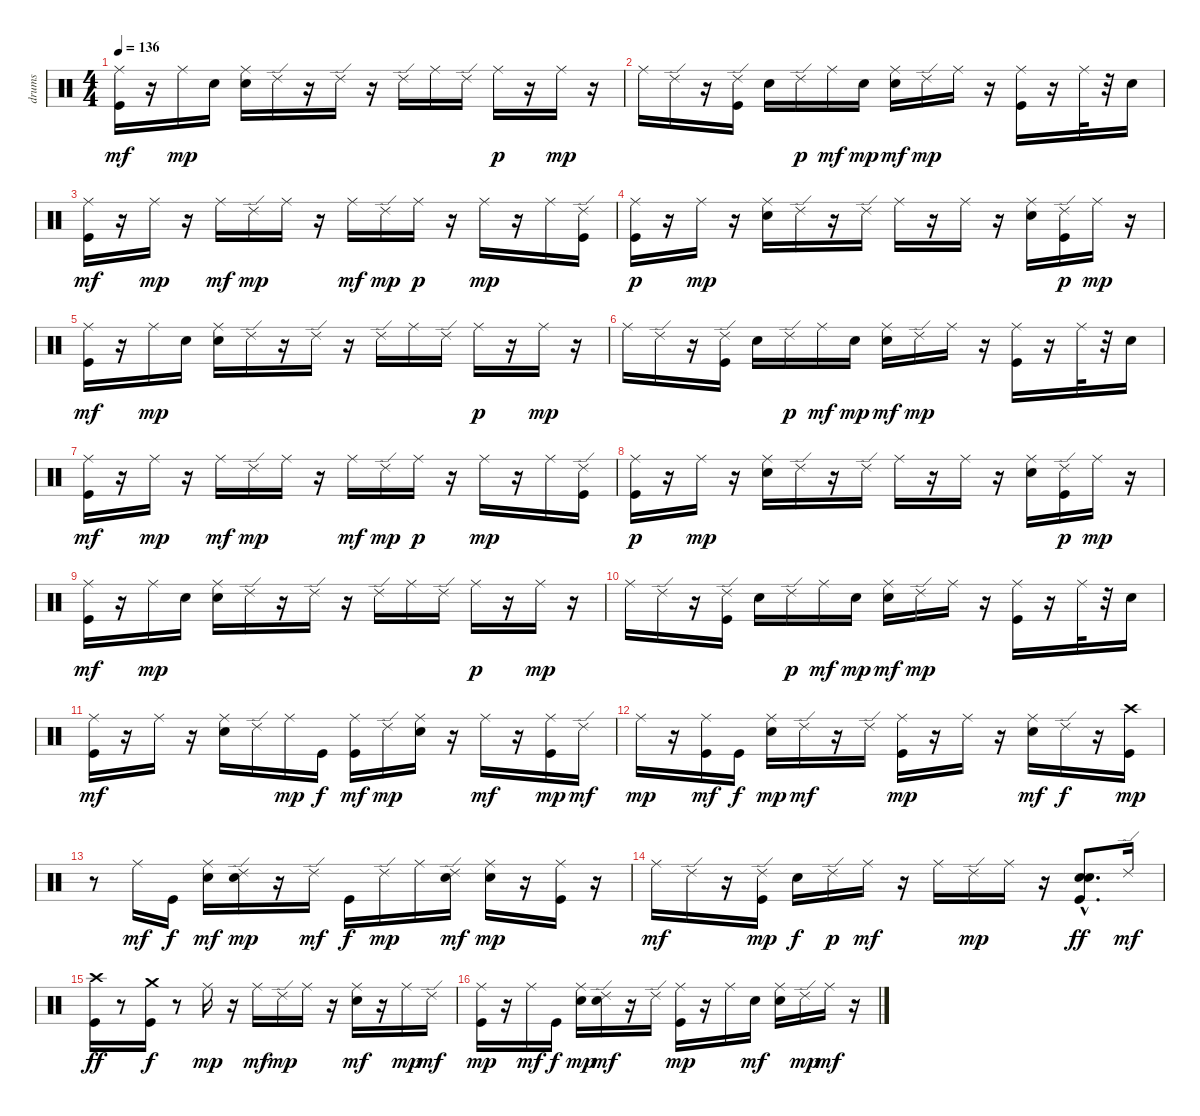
\track ("drums   " "drums   ") {instrument percussion}
\staff {score}
\articulation defaults
\ts (4 4)
\tempo 136
\clef neutral
\ks c
("Kick (hit)" "Ride (middle)").16{dy mf} r.16 "Ride (middle)".16{dy mp} "Electric Snare (hit)".16 ("Electric Snare (hit)" "Ride (middle)").16 "Ride (edge) 2".16 r.16 "Ride (edge) 2".16 r.16 "Ride (edge) 2".16 "Ride (middle)".16 "Ride (edge) 2".16 "Ride (middle)".16{dy p} r.16 "Ride (middle)".16{dy mp} r.16 |
"Ride (middle)".16 "Ride (edge) 2".16 r.16 ("Kick (hit)" "Ride (edge) 2").16 "Electric Snare (hit)".16 "Ride (edge) 2".16{dy p} "Ride (middle)".16{dy mf} "Electric Snare (hit)".16{dy mp} ("Electric Snare (hit)" "Ride (middle)").16{dy mf} "Ride (edge) 2".16{dy mp} "Ride (middle)".16 r.16 ("Kick (hit)" "Ride (middle)").16 r.16 "Ride (middle)".32 r.32 "Electric Snare (hit)".16 |
("Kick (hit)" "Ride (middle)").16{dy mf} r.16 "Ride (middle)".16{dy mp} r.16 "Ride (middle)".16{dy mf} "Ride (edge) 2".16{dy mp} "Ride (middle)".16 r.16 "Ride (middle)".16{dy mf} "Ride (edge) 2".16{dy mp} "Ride (middle)".16{dy p} r.16 "Ride (middle)".16{dy mp} r.16 "Ride (middle)".16 ("Kick (hit)" "Ride (edge) 2").16 |
("Kick (hit)" "Ride (middle)").16{dy p} r.16 "Ride (middle)".16{dy mp} r.16 ("Electric Snare (hit)" "Ride (middle)").16 "Ride (edge) 2".16 r.16 "Ride (edge) 2".16 "Ride (middle)".16 r.16 "Ride (middle)".16 r.16 ("Electric Snare (hit)" "Ride (middle)").16 ("Kick (hit)" "Ride (edge) 2").16{dy p} "Ride (middle)".16{dy mp} r.16 |
("Kick (hit)" "Ride (middle)").16{dy mf} r.16 "Ride (middle)".16{dy mp} "Electric Snare (hit)".16 ("Electric Snare (hit)" "Ride (middle)").16 "Ride (edge) 2".16 r.16 "Ride (edge) 2".16 r.16 "Ride (edge) 2".16 "Ride (middle)".16 "Ride (edge) 2".16 "Ride (middle)".16{dy p} r.16 "Ride (middle)".16{dy mp} r.16 |
"Ride (middle)".16 "Ride (edge) 2".16 r.16 ("Kick (hit)" "Ride (edge) 2").16 "Electric Snare (hit)".16 "Ride (edge) 2".16{dy p} "Ride (middle)".16{dy mf} "Electric Snare (hit)".16{dy mp} ("Electric Snare (hit)" "Ride (middle)").16{dy mf} "Ride (edge) 2".16{dy mp} "Ride (middle)".16 r.16 ("Kick (hit)" "Ride (middle)").16 r.16 "Ride (middle)".32 r.32 "Electric Snare (hit)".16 |
("Kick (hit)" "Ride (middle)").16{dy mf} r.16 "Ride (middle)".16{dy mp} r.16 "Ride (middle)".16{dy mf} "Ride (edge) 2".16{dy mp} "Ride (middle)".16 r.16 "Ride (middle)".16{dy mf} "Ride (edge) 2".16{dy mp} "Ride (middle)".16{dy p} r.16 "Ride (middle)".16{dy mp} r.16 "Ride (middle)".16 ("Kick (hit)" "Ride (edge) 2").16 |
("Kick (hit)" "Ride (middle)").16{dy p} r.16 "Ride (middle)".16{dy mp} r.16 ("Electric Snare (hit)" "Ride (middle)").16 "Ride (edge) 2".16 r.16 "Ride (edge) 2".16 "Ride (middle)".16 r.16 "Ride (middle)".16 r.16 ("Electric Snare (hit)" "Ride (middle)").16 ("Kick (hit)" "Ride (edge) 2").16{dy p} "Ride (middle)".16{dy mp} r.16 |
("Kick (hit)" "Ride (middle)").16{dy mf} r.16 "Ride (middle)".16{dy mp} "Electric Snare (hit)".16 ("Electric Snare (hit)" "Ride (middle)").16 "Ride (edge) 2".16 r.16 "Ride (edge) 2".16 r.16 "Ride (edge) 2".16 "Ride (middle)".16 "Ride (edge) 2".16 "Ride (middle)".16{dy p} r.16 "Ride (middle)".16{dy mp} r.16 |
"Ride (middle)".16 "Ride (edge) 2".16 r.16 ("Kick (hit)" "Ride (edge) 2").16 "Electric Snare (hit)".16 "Ride (edge) 2".16{dy p} "Ride (middle)".16{dy mf} "Electric Snare (hit)".16{dy mp} ("Electric Snare (hit)" "Ride (middle)").16{dy mf} "Ride (edge) 2".16{dy mp} "Ride (middle)".16 r.16 ("Kick (hit)" "Ride (middle)").16 r.16 "Ride (middle)".32 r.32 "Electric Snare (hit)".16 |
("Kick (hit)" "Ride (middle)").16{dy mf} r.16 "Ride (middle)".16 r.16 ("Electric Snare (hit)" "Ride (middle)").16 "Ride (edge) 2".16 "Ride (middle)".16{dy mp} "Kick (hit)".16{dy f} ("Kick (hit)" "Ride (middle)").16{dy mf} "Ride (edge) 2".16{dy mp} ("Electric Snare (hit)" "Ride (middle)").16 r.16 "Ride (middle)".16{dy mf} r.16 ("Kick (hit)" "Ride (middle)").16{dy mp} "Ride (edge) 2".16{dy mf} |
"Ride (middle)".16{dy mp} r.16 ("Kick (hit)" "Ride (middle)").16{dy mf} "Kick (hit)".16{dy f} ("Electric Snare (hit)" "Ride (middle)").16{dy mp} "Ride (edge) 2".16{dy mf} r.16 "Ride (edge) 2".16 ("Kick (hit)" "Ride (middle)").16{dy mp} r.16 "Ride (middle)".16 r.16 ("Electric Snare (hit)" "Ride (middle)").16{dy mf} "Ride (edge) 2".16{dy f} r.16 ("Crash high (hit)" "Kick (hit)").16{dy mp} |
r.8 "Ride (middle)".16{dy mf} "Kick (hit)".16{dy f} ("Electric Snare (hit)" "Ride (middle)").16{dy mf} ("Electric Snare (hit)" "Ride (edge) 2").16{dy mp} r.16 "Ride (edge) 2".16{dy mf} "Kick (hit)".16{dy f} "Ride (edge) 2".16{dy mp} "Ride (middle)".16 ("Electric Snare (hit)" "Ride (edge) 2").16{dy mf} ("Electric Snare (hit)" "Ride (middle)").16{dy mp} r.16 ("Kick (hit)" "Ride (middle)").16 r.16 |
"Ride (middle)".16{dy mf} "Ride (edge) 2".16 r.16 ("Kick (hit)" "Ride (edge) 2").16{dy mp} "Electric Snare (hit)".16{dy f} "Ride (edge) 2".16{dy p} "Ride (middle)".16{dy mf} r.16 "Ride (middle)".16 "Ride (edge) 2".16{dy mp} "Ride (middle)".16 r.16 ("Electric Snare (hit)"{hac} "Kick (hit)" "Electric Snare (hit)").8{d dy ff} "Ride (edge) 2".16{dy mf} |
("Kick (hit)" "Crash high (hit)").16{dy ff} r.8 ("Kick (hit)" "Crash medium (hit)").16{dy f} r.8 "Ride (middle)".16{dy mp} r.16 "Ride (middle)".16{dy mf} "Ride (edge) 2".16{dy mp} "Ride (middle)".16 r.16 ("Electric Snare (hit)" "Ride (middle)").16{dy mf} r.16 "Ride (middle)".16{dy mp} "Ride (edge) 2".16{dy mf} |
("Kick (hit)" "Ride (middle)").16{dy mp} r.16 "Ride (middle)".16{dy mf} "Kick (hit)".16{dy f} ("Electric Snare (hit)" "Ride (middle)").16{dy mp} ("Electric Snare (hit)" "Ride (edge) 2").16{dy mf} r.16 "Ride (edge) 2".16 ("Kick (hit)" "Ride (middle)").16{dy mp} r.16 "Ride (middle)".16 "Electric Snare (hit)".16{dy mf} ("Electric Snare (hit)" "Ride (middle)").16 "Ride (edge) 2".16{dy mp} "Ride (middle)".16{dy mf} r.16
